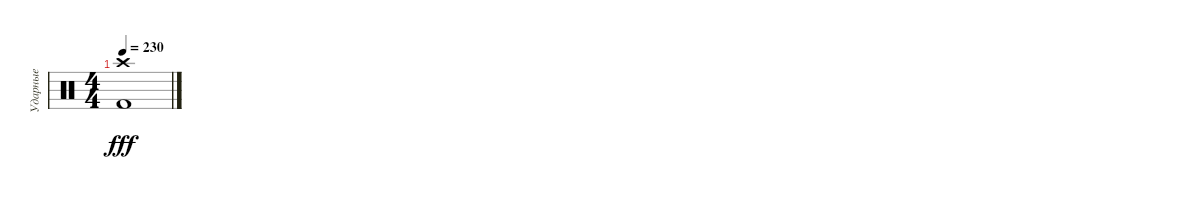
\track ("Ударные" "Ударные") {instrument percussion}
\staff
\articulation defaults
\ts (4 4)
\tempo 230
\clef neutral
\ks c
("Kick (hit) 2" "Crash high (hit)").1{dy fff}
